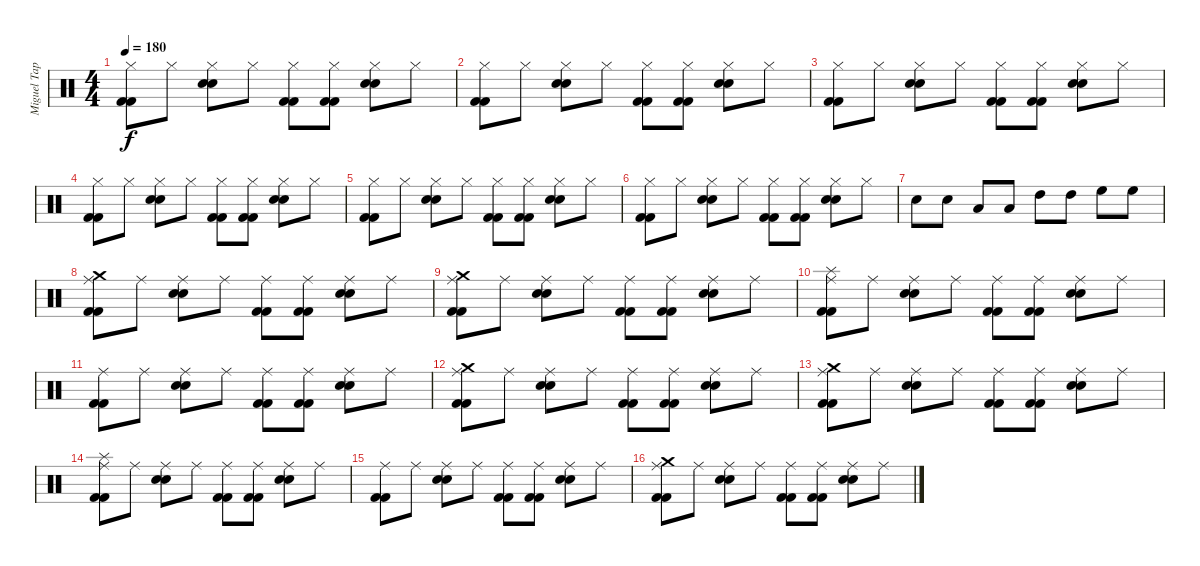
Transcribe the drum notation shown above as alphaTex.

\track ("Miguel Tapia" "Miguel Tap") {instrument percussion}
\staff {score}
\articulation defaults
\ts (4 4)
\tempo 180
\clef neutral
\ks c
("Hi-Hat (closed)" "Kick (hit) 2" "Kick (hit) 2").8{dy f} "Hi-Hat (closed)".8 ("Hi-Hat (closed)" "Electric Snare (hit)" "Electric Snare (hit)").8 "Hi-Hat (closed)".8 ("Hi-Hat (closed)" "Kick (hit) 2" "Kick (hit) 2").8 ("Hi-Hat (closed)" "Kick (hit) 2" "Kick (hit) 2").8 ("Hi-Hat (closed)" "Electric Snare (hit)" "Electric Snare (hit)").8 "Hi-Hat (closed)".8 |
("Hi-Hat (closed)" "Kick (hit) 2" "Kick (hit) 2").8 "Hi-Hat (closed)".8 ("Hi-Hat (closed)" "Electric Snare (hit)" "Electric Snare (hit)").8 "Hi-Hat (closed)".8 ("Hi-Hat (closed)" "Kick (hit) 2" "Kick (hit) 2").8 ("Hi-Hat (closed)" "Kick (hit) 2" "Kick (hit) 2").8 ("Hi-Hat (closed)" "Electric Snare (hit)" "Electric Snare (hit)").8 "Hi-Hat (closed)".8 |
("Hi-Hat (closed)" "Kick (hit) 2" "Kick (hit) 2").8 "Hi-Hat (closed)".8 ("Hi-Hat (closed)" "Electric Snare (hit)" "Electric Snare (hit)").8 "Hi-Hat (closed)".8 ("Hi-Hat (closed)" "Kick (hit) 2" "Kick (hit) 2").8 ("Hi-Hat (closed)" "Kick (hit) 2" "Kick (hit) 2").8 ("Hi-Hat (closed)" "Electric Snare (hit)" "Electric Snare (hit)").8 "Hi-Hat (closed)".8 |
("Hi-Hat (closed)" "Kick (hit) 2" "Kick (hit) 2").8 "Hi-Hat (closed)".8 ("Hi-Hat (closed)" "Electric Snare (hit)" "Electric Snare (hit)").8 "Hi-Hat (closed)".8 ("Hi-Hat (closed)" "Kick (hit) 2" "Kick (hit) 2").8 ("Hi-Hat (closed)" "Kick (hit) 2" "Kick (hit) 2").8 ("Hi-Hat (closed)" "Electric Snare (hit)" "Electric Snare (hit)").8 "Hi-Hat (closed)".8 |
("Hi-Hat (closed)" "Kick (hit) 2" "Kick (hit) 2").8 "Hi-Hat (closed)".8 ("Hi-Hat (closed)" "Electric Snare (hit)" "Electric Snare (hit)").8 "Hi-Hat (closed)".8 ("Hi-Hat (closed)" "Kick (hit) 2" "Kick (hit) 2").8 ("Hi-Hat (closed)" "Kick (hit) 2" "Kick (hit) 2").8 ("Hi-Hat (closed)" "Electric Snare (hit)" "Electric Snare (hit)").8 "Hi-Hat (closed)".8 |
("Hi-Hat (closed)" "Kick (hit) 2" "Kick (hit) 2").8 "Hi-Hat (closed)".8 ("Hi-Hat (closed)" "Electric Snare (hit)" "Electric Snare (hit)").8 "Hi-Hat (closed)".8 ("Hi-Hat (closed)" "Kick (hit) 2" "Kick (hit) 2").8 ("Hi-Hat (closed)" "Kick (hit) 2" "Kick (hit) 2").8 ("Hi-Hat (closed)" "Electric Snare (hit)" "Electric Snare (hit)").8 "Hi-Hat (closed)".8 |
"Electric Snare (hit)".8 "Electric Snare (hit)".8 "Low Tom (hit)".8 "Low Tom (hit)".8 "High Tom (hit)".8 "High Tom (hit)".8 "High Floor Tom (hit)".8 "High Floor Tom (hit)".8 |
("Ride (middle)" "Kick (hit) 2" "Kick (hit) 2" "Crash medium (hit)").8 "Ride (middle)".8 ("Ride (middle)" "Electric Snare (hit)" "Electric Snare (hit)").8 "Ride (middle)".8 ("Ride (middle)" "Kick (hit) 2" "Kick (hit) 2").8 ("Ride (middle)" "Kick (hit) 2" "Kick (hit) 2").8 ("Ride (middle)" "Electric Snare (hit)" "Electric Snare (hit)").8 "Ride (middle)".8 |
("Ride (middle)" "Kick (hit) 2" "Kick (hit) 2" "Crash medium (hit)").8 "Ride (middle)".8 ("Ride (middle)" "Electric Snare (hit)" "Electric Snare (hit)").8 "Ride (middle)".8 ("Ride (middle)" "Kick (hit) 2" "Kick (hit) 2").8 ("Ride (middle)" "Kick (hit) 2" "Kick (hit) 2").8 ("Ride (middle)" "Electric Snare (hit)" "Electric Snare (hit)").8 "Ride (middle)".8 |
("Ride (middle)" "Kick (hit) 2" "Kick (hit) 2" "Splash (hit)").8 "Ride (middle)".8 ("Ride (middle)" "Electric Snare (hit)" "Electric Snare (hit)").8 "Ride (middle)".8 ("Ride (middle)" "Kick (hit) 2" "Kick (hit) 2").8 ("Ride (middle)" "Kick (hit) 2" "Kick (hit) 2").8 ("Ride (middle)" "Electric Snare (hit)" "Electric Snare (hit)").8 "Ride (middle)".8 |
("Ride (middle)" "Kick (hit) 2" "Kick (hit) 2").8 "Ride (middle)".8 ("Ride (middle)" "Electric Snare (hit)" "Electric Snare (hit)").8 "Ride (middle)".8 ("Ride (middle)" "Kick (hit) 2" "Kick (hit) 2").8 ("Ride (middle)" "Kick (hit) 2" "Kick (hit) 2").8 ("Ride (middle)" "Electric Snare (hit)" "Electric Snare (hit)").8 "Ride (middle)".8 |
("Ride (middle)" "Kick (hit) 2" "Kick (hit) 2" "Crash medium (hit)").8 "Ride (middle)".8 ("Ride (middle)" "Electric Snare (hit)" "Electric Snare (hit)").8 "Ride (middle)".8 ("Ride (middle)" "Kick (hit) 2" "Kick (hit) 2").8 ("Ride (middle)" "Kick (hit) 2" "Kick (hit) 2").8 ("Ride (middle)" "Electric Snare (hit)" "Electric Snare (hit)").8 "Ride (middle)".8 |
("Ride (middle)" "Kick (hit) 2" "Kick (hit) 2" "Crash medium (hit)").8 "Ride (middle)".8 ("Ride (middle)" "Electric Snare (hit)" "Electric Snare (hit)").8 "Ride (middle)".8 ("Ride (middle)" "Kick (hit) 2" "Kick (hit) 2").8 ("Ride (middle)" "Kick (hit) 2" "Kick (hit) 2").8 ("Ride (middle)" "Electric Snare (hit)" "Electric Snare (hit)").8 "Ride (middle)".8 |
("Ride (middle)" "Kick (hit) 2" "Kick (hit) 2" "Splash (hit)").8 "Ride (middle)".8 ("Ride (middle)" "Electric Snare (hit)" "Electric Snare (hit)").8 "Ride (middle)".8 ("Ride (middle)" "Kick (hit) 2" "Kick (hit) 2").8 ("Ride (middle)" "Kick (hit) 2" "Kick (hit) 2").8 ("Ride (middle)" "Electric Snare (hit)" "Electric Snare (hit)").8 "Ride (middle)".8 |
("Ride (middle)" "Kick (hit) 2" "Kick (hit) 2").8 "Ride (middle)".8 ("Ride (middle)" "Electric Snare (hit)" "Electric Snare (hit)").8 "Ride (middle)".8 ("Ride (middle)" "Kick (hit) 2" "Kick (hit) 2").8 ("Ride (middle)" "Kick (hit) 2" "Kick (hit) 2").8 ("Ride (middle)" "Electric Snare (hit)" "Electric Snare (hit)").8 "Ride (middle)".8 |
("Ride (middle)" "Kick (hit) 2" "Kick (hit) 2" "Crash medium (hit)").8 "Ride (middle)".8 ("Ride (middle)" "Electric Snare (hit)" "Electric Snare (hit)").8 "Ride (middle)".8 ("Ride (middle)" "Kick (hit) 2" "Kick (hit) 2").8 ("Ride (middle)" "Kick (hit) 2" "Kick (hit) 2").8 ("Ride (middle)" "Electric Snare (hit)" "Electric Snare (hit)").8 "Ride (middle)".8
